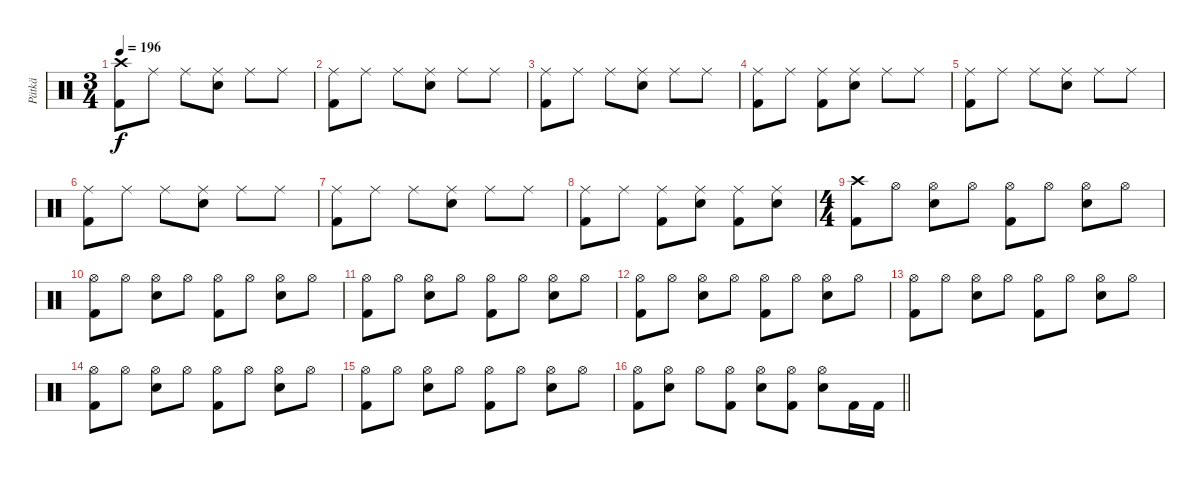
\track ("Pätkä" "Pätkä") {instrument percussion}
\staff {score}
\articulation defaults
\ts (3 4)
\tempo 196
\clef neutral
\ks c
("Crash high (hit)" "Kick (hit) 2").8{dy f} "Ride (middle)".8 "Ride (middle)".8 ("Ride (middle)" "Electric Snare (hit)").8 "Ride (middle)".8 "Ride (middle)".8 |
("Ride (middle)" "Kick (hit) 2").8 "Ride (middle)".8 "Ride (middle)".8 ("Ride (middle)" "Electric Snare (hit)").8 "Ride (middle)".8 "Ride (middle)".8 |
("Ride (middle)" "Kick (hit) 2").8 "Ride (middle)".8 "Ride (middle)".8 ("Ride (middle)" "Electric Snare (hit)").8 "Ride (middle)".8 "Ride (middle)".8 |
("Ride (middle)" "Kick (hit) 2").8 "Ride (middle)".8 ("Ride (middle)" "Kick (hit) 2").8 ("Ride (middle)" "Electric Snare (hit)").8 "Ride (middle)".8 "Ride (middle)".8 |
("Ride (middle)" "Kick (hit) 2").8 "Ride (middle)".8 "Ride (middle)".8 ("Ride (middle)" "Electric Snare (hit)").8 "Ride (middle)".8 "Ride (middle)".8 |
("Ride (middle)" "Kick (hit) 2").8 "Ride (middle)".8 "Ride (middle)".8 ("Ride (middle)" "Electric Snare (hit)").8 "Ride (middle)".8 "Ride (middle)".8 |
("Ride (middle)" "Kick (hit) 2").8 "Ride (middle)".8 "Ride (middle)".8 ("Ride (middle)" "Electric Snare (hit)").8 "Ride (middle)".8 "Ride (middle)".8 |
("Ride (middle)" "Kick (hit) 2").8 "Ride (middle)".8 ("Ride (middle)" "Kick (hit) 2").8 ("Ride (middle)" "Electric Snare (hit)").8 ("Ride (middle)" "Kick (hit) 2").8 ("Ride (middle)" "Electric Snare (hit)").8 |
\ts (4 4)
("Crash high (hit)" "Kick (hit) 2").8 "Hi-Hat (open)".8 ("Hi-Hat (open)" "Electric Snare (hit)").8 "Hi-Hat (open)".8 ("Hi-Hat (open)" "Kick (hit) 2").8 "Hi-Hat (open)".8 ("Hi-Hat (open)" "Electric Snare (hit)").8 "Hi-Hat (open)".8 |
("Hi-Hat (open)" "Kick (hit) 2").8 "Hi-Hat (open)".8 ("Hi-Hat (open)" "Electric Snare (hit)").8 "Hi-Hat (open)".8 ("Hi-Hat (open)" "Kick (hit) 2").8 "Hi-Hat (open)".8 ("Hi-Hat (open)" "Electric Snare (hit)").8 "Hi-Hat (open)".8 |
("Hi-Hat (open)" "Kick (hit) 2").8 "Hi-Hat (open)".8 ("Hi-Hat (open)" "Electric Snare (hit)").8 "Hi-Hat (open)".8 ("Hi-Hat (open)" "Kick (hit) 2").8 "Hi-Hat (open)".8 ("Hi-Hat (open)" "Electric Snare (hit)").8 "Hi-Hat (open)".8 |
("Hi-Hat (open)" "Kick (hit) 2").8 "Hi-Hat (open)".8 ("Hi-Hat (open)" "Electric Snare (hit)").8 "Hi-Hat (open)".8 ("Hi-Hat (open)" "Kick (hit) 2").8 "Hi-Hat (open)".8 ("Hi-Hat (open)" "Electric Snare (hit)").8 "Hi-Hat (open)".8 |
("Hi-Hat (open)" "Kick (hit) 2").8 "Hi-Hat (open)".8 ("Hi-Hat (open)" "Electric Snare (hit)").8 "Hi-Hat (open)".8 ("Hi-Hat (open)" "Kick (hit) 2").8 "Hi-Hat (open)".8 ("Hi-Hat (open)" "Electric Snare (hit)").8 "Hi-Hat (open)".8 |
("Hi-Hat (open)" "Kick (hit) 2").8 "Hi-Hat (open)".8 ("Hi-Hat (open)" "Electric Snare (hit)").8 "Hi-Hat (open)".8 ("Hi-Hat (open)" "Kick (hit) 2").8 "Hi-Hat (open)".8 ("Hi-Hat (open)" "Electric Snare (hit)").8 "Hi-Hat (open)".8 |
("Hi-Hat (open)" "Kick (hit) 2").8 "Hi-Hat (open)".8 ("Hi-Hat (open)" "Electric Snare (hit)").8 "Hi-Hat (open)".8 ("Hi-Hat (open)" "Kick (hit) 2").8 "Hi-Hat (open)".8 ("Hi-Hat (open)" "Electric Snare (hit)").8 "Hi-Hat (open)".8 |
\barLineRight lightlight
("Hi-Hat (open)" "Kick (hit) 2").8 ("Hi-Hat (open)" "Electric Snare (hit)").8 "Hi-Hat (open)".8 ("Hi-Hat (open)" "Kick (hit) 2").8 ("Hi-Hat (open)" "Electric Snare (hit)").8 ("Hi-Hat (open)" "Kick (hit) 2").8 ("Hi-Hat (open)" "Electric Snare (hit)").8 "Kick (hit) 2".16 "Kick (hit) 2".16
